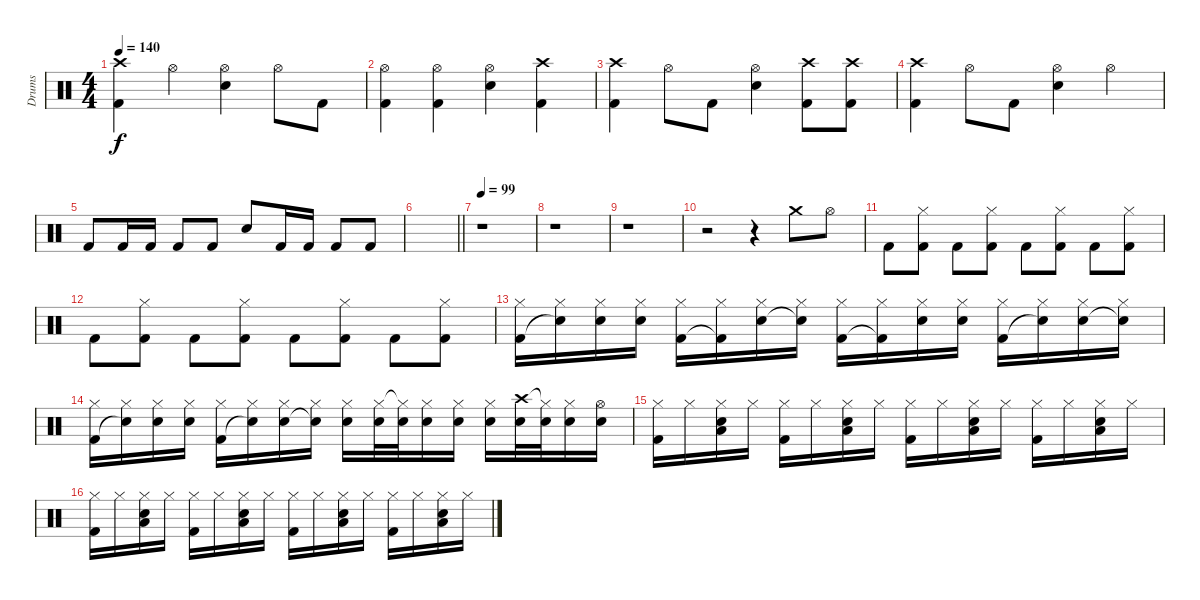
\track ("Drums" "Drums") {instrument percussion}
\staff {score}
\articulation defaults
\ts (4 4)
\tempo 140
\clef neutral
\ks c
("Crash high (hit)" "Kick (hit) 2").4{dy f} "Hi-Hat (open)".4 ("Hi-Hat (open)" "Electric Snare (hit)").4 "Hi-Hat (open)".8 "Kick (hit) 2".8 |
("Hi-Hat (open)" "Kick (hit) 2").4 ("Hi-Hat (open)" "Kick (hit) 2").4 ("Hi-Hat (open)" "Electric Snare (hit)").4 ("Crash high (hit)" "Kick (hit) 2").4 |
("Crash high (hit)" "Kick (hit) 2").4 "Hi-Hat (open)".8 "Kick (hit) 2".8 ("Hi-Hat (open)" "Electric Snare (hit)").4 ("Crash high (hit)" "Kick (hit) 2").8 ("Crash high (hit)" "Kick (hit) 2").8 |
("Crash high (hit)" "Kick (hit) 2").4 "Hi-Hat (open)".8 "Kick (hit) 2".8 ("Hi-Hat (open)" "Electric Snare (hit)").4 "Hi-Hat (open)".4 |
"Kick (hit) 2".8 "Kick (hit) 2".16 "Kick (hit) 2".16 "Kick (hit) 2".8 "Kick (hit) 2".8 "Electric Snare (hit)".8 "Kick (hit) 2".16 "Kick (hit) 2".16 "Kick (hit) 2".8 "Kick (hit) 2".8 |
\barLineRight lightlight
|
\tempo 99
r.1 |
r.1 |
r.1 |
r.2 r.4 "Crash medium (hit)".8 "Hi-Hat (open)".8 |
"Kick (hit) 2".8 ("Hi-Hat (closed)" "Kick (hit) 2").8 "Kick (hit) 2".8 ("Hi-Hat (closed)" "Kick (hit) 2").8 "Kick (hit) 2".8 ("Hi-Hat (closed)" "Kick (hit) 2").8 "Kick (hit) 2".8 ("Hi-Hat (closed)" "Kick (hit) 2").8 |
"Kick (hit) 2".8 ("Hi-Hat (closed)" "Kick (hit) 2").8 "Kick (hit) 2".8 ("Hi-Hat (closed)" "Kick (hit) 2").8 "Kick (hit) 2".8 ("Hi-Hat (closed)" "Kick (hit) 2").8 "Kick (hit) 2".8 ("Hi-Hat (closed)" "Kick (hit) 2").8 |
("Hi-Hat (closed)" "Kick (hit) 2").16 ("Hi-Hat (closed)" "Snare (hit)"{t}).16 ("Hi-Hat (closed)" "Snare (hit) 2").16 ("Hi-Hat (closed)" "Snare (hit) 2").16 ("Hi-Hat (closed)" "Kick (hit) 2").16 ("Hi-Hat (closed)" "Kick (hit) 2"{t}).16 ("Hi-Hat (closed)" "Snare (hit) 2").16 ("Hi-Hat (closed)" "Snare (hit) 2"{t}).16 ("Hi-Hat (closed)" "Kick (hit) 2").16 ("Hi-Hat (closed)" "Kick (hit) 2"{t}).16 ("Hi-Hat (closed)" "Snare (hit) 2").16 ("Hi-Hat (closed)" "Snare (hit) 2").16 ("Hi-Hat (closed)" "Kick (hit) 2").16 ("Hi-Hat (closed)" "Snare (hit)"{t}).16 ("Hi-Hat (closed)" "Snare (hit) 2").16 ("Hi-Hat (closed)" "Snare (hit)"{t}).16 |
("Hi-Hat (closed)" "Kick (hit) 2").16 ("Hi-Hat (closed)" "Snare (hit)"{t}).16 ("Hi-Hat (closed)" "Snare (hit) 2").16 ("Hi-Hat (closed)" "Snare (hit) 2").16 ("Hi-Hat (closed)" "Kick (hit) 2").16 ("Hi-Hat (closed)" "Snare (hit)"{t}).16 ("Hi-Hat (closed)" "Snare (hit) 2").16 ("Hi-Hat (closed)" "Snare (hit) 2"{t}).16 ("Hi-Hat (closed)" "Snare (hit) 2").16 ("Hi-Hat (closed)" "Snare (hit) 2").32 ("Hi-Hat (closed)"{t} "Snare (hit) 2").32 ("Hi-Hat (closed)" "Snare (hit) 2").16 ("Hi-Hat (closed)" "Snare (hit) 2").16 ("Hi-Hat (closed)" "Snare (hit) 2").16 ("Crash high (hit)" "Snare (hit) 2").32 ("Hi-Hat (closed)"{t} "Snare (hit) 2").32 ("Hi-Hat (closed)" "Snare (hit) 2").16 ("Hi-Hat (open)" "Snare (hit) 2").16 |
("Hi-Hat (closed)" "Kick (hit) 2").16 "Hi-Hat (closed)".16 ("Hi-Hat (closed)" "Snare (hit) 2" "Low Tom (hit)").16 "Hi-Hat (closed)".16 ("Hi-Hat (closed)" "Kick (hit) 2").16 "Hi-Hat (closed)".16 ("Hi-Hat (closed)" "Snare (hit) 2" "Low Tom (hit)").16 "Hi-Hat (closed)".16 ("Hi-Hat (closed)" "Kick (hit) 2").16 "Hi-Hat (closed)".16 ("Hi-Hat (closed)" "Snare (hit) 2" "Low Tom (hit)").16 "Hi-Hat (closed)".16 ("Hi-Hat (closed)" "Kick (hit) 2").16 "Hi-Hat (closed)".16 ("Hi-Hat (closed)" "Snare (hit) 2" "Low Tom (hit)").16 "Hi-Hat (closed)".16 |
("Hi-Hat (closed)" "Kick (hit) 2").16 "Hi-Hat (closed)".16 ("Hi-Hat (closed)" "Snare (hit) 2" "Low Tom (hit)").16 "Hi-Hat (closed)".16 ("Hi-Hat (closed)" "Kick (hit) 2").16 "Hi-Hat (closed)".16 ("Hi-Hat (closed)" "Snare (hit) 2" "Low Tom (hit)").16 "Hi-Hat (closed)".16 ("Hi-Hat (closed)" "Kick (hit) 2").16 "Hi-Hat (closed)".16 ("Hi-Hat (closed)" "Snare (hit) 2" "Low Tom (hit)").16 "Hi-Hat (closed)".16 ("Hi-Hat (closed)" "Kick (hit) 2").16 "Hi-Hat (closed)".16 ("Hi-Hat (closed)" "Snare (hit) 2" "Low Tom (hit)").16 "Hi-Hat (closed)".16
